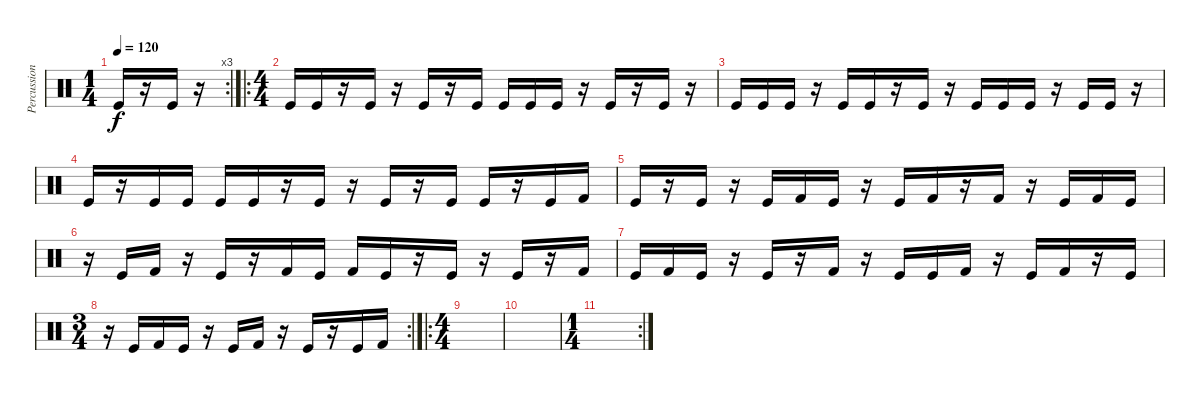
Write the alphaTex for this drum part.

\track ("Percussion" "Percussion") {instrument percussion}
\staff {score}
\articulation defaults
\rc 3
\ts (1 4)
\tempo 120
\clef neutral
\ks c "Kick (hit)".16{dy f}
r.16 "Kick (hit)".16 r.16 |
\ro
\ts (4 4)
"Kick (hit)".16 "Kick (hit)".16 r.16 "Kick (hit)".16 r.16 "Kick (hit)".16 r.16 "Kick (hit)".16 "Kick (hit)".16 "Kick (hit)".16 "Kick (hit)".16 r.16 "Kick (hit)".16 r.16 "Kick (hit)".16 r.16 |
"Kick (hit)".16 "Kick (hit)".16 "Kick (hit)".16 r.16 "Kick (hit)".16 "Kick (hit)".16 r.16 "Kick (hit)".16 r.16 "Kick (hit)".16 "Kick (hit)".16 "Kick (hit)".16 r.16 "Kick (hit)".16 "Kick (hit)".16 r.16 |
"Kick (hit)".16 r.16 "Kick (hit)".16 "Kick (hit)".16 "Kick (hit)".16 "Kick (hit)".16 r.16 "Kick (hit)".16 r.16 "Kick (hit)".16 r.16 "Kick (hit)".16 "Kick (hit)".16 r.16 "Kick (hit)".16 "Kick (hit) 2".16 |
"Kick (hit)".16 r.16 "Kick (hit)".16 r.16 "Kick (hit)".16 "Kick (hit) 2".16 "Kick (hit)".16 r.16 "Kick (hit)".16 "Kick (hit) 2".16 r.16 "Kick (hit) 2".16 r.16 "Kick (hit)".16 "Kick (hit) 2".16 "Kick (hit)".16 |
r.16 "Kick (hit)".16 "Kick (hit) 2".16 r.16 "Kick (hit)".16 r.16 "Kick (hit) 2".16 "Kick (hit)".16 "Kick (hit) 2".16 "Kick (hit)".16 r.16 "Kick (hit)".16 r.16 "Kick (hit)".16 r.16 "Kick (hit) 2".16 |
"Kick (hit)".16 "Kick (hit) 2".16 "Kick (hit)".16 r.16 "Kick (hit)".16 r.16 "Kick (hit) 2".16 r.16 "Kick (hit)".16 "Kick (hit)".16 "Kick (hit) 2".16 r.16 "Kick (hit)".16 "Kick (hit) 2".16 r.16 "Kick (hit)".16 |
\rc 2
\ts (3 4)
r.16 "Kick (hit)".16 "Kick (hit) 2".16 "Kick (hit)".16 r.16 "Kick (hit)".16 "Kick (hit) 2".16 r.16 "Kick (hit)".16 r.16 "Kick (hit)".16 "Kick (hit) 2".16 |
\ro
\ts (4 4)
|
|
\rc 2
\ts (1 4)
